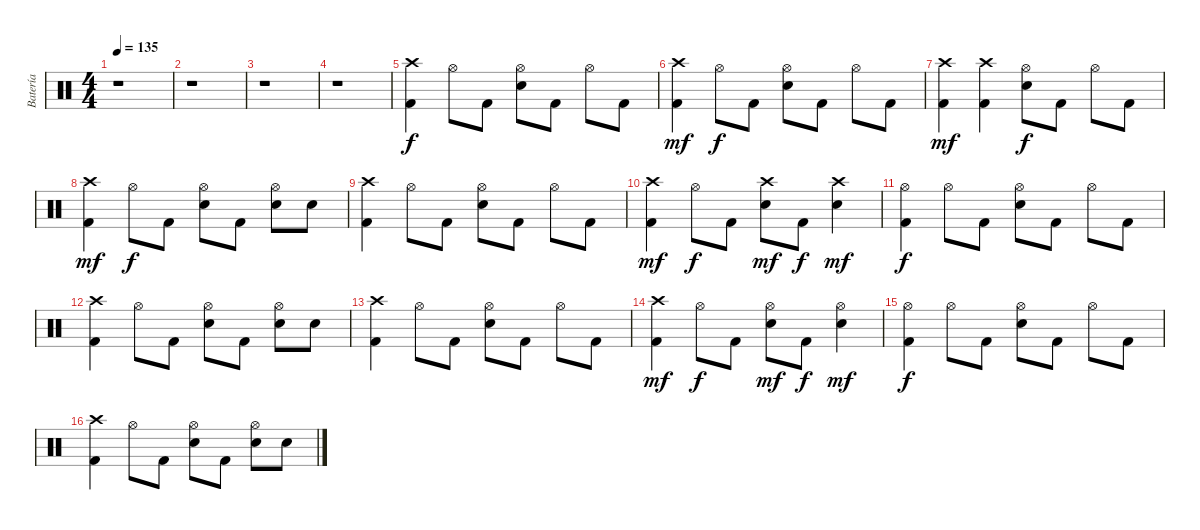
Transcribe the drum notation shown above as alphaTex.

\track ("Batería" "Batería") {instrument percussion}
\staff {score}
\articulation defaults
\ts (4 4)
\tempo 135
\clef neutral
\ks c
r.1{dy f} |
r.1 |
r.1 |
r.1 |
("Crash high (hit)" "Kick (hit) 2").4 "Hi-Hat (open)".8 "Kick (hit) 2".8 ("Hi-Hat (open)" "Snare (hit) 2").8 "Kick (hit) 2".8 "Hi-Hat (open)".8 "Kick (hit) 2".8 |
("Crash high (hit)" "Kick (hit) 2").4{dy mf} "Hi-Hat (open)".8{dy f} "Kick (hit) 2".8 ("Hi-Hat (open)" "Snare (hit) 2").8 "Kick (hit) 2".8 "Hi-Hat (open)".8 "Kick (hit) 2".8 |
("Crash high (hit)" "Kick (hit) 2").4{dy mf} ("Crash high (hit)" "Kick (hit) 2").4 ("Hi-Hat (open)" "Snare (hit) 2").8{dy f} "Kick (hit) 2".8 "Hi-Hat (open)".8 "Kick (hit) 2".8 |
("Crash high (hit)" "Kick (hit) 2").4{dy mf} "Hi-Hat (open)".8{dy f} "Kick (hit) 2".8 ("Hi-Hat (open)" "Snare (hit) 2").8 "Kick (hit) 2".8 ("Hi-Hat (open)" "Snare (hit) 2").8 "Snare (hit) 2".8 |
("Crash high (hit)" "Kick (hit) 2").4 "Hi-Hat (open)".8 "Kick (hit) 2".8 ("Hi-Hat (open)" "Snare (hit) 2").8 "Kick (hit) 2".8 "Hi-Hat (open)".8 "Kick (hit) 2".8 |
("Crash high (hit)" "Kick (hit) 2").4{dy mf} "Hi-Hat (open)".8{dy f} "Kick (hit) 2".8 ("Crash high (hit)" "Snare (hit) 2").8{dy mf} "Kick (hit) 2".8{dy f} ("Crash high (hit)" "Snare (hit) 2").4{dy mf} |
("Hi-Hat (open)" "Kick (hit) 2").4{dy f} "Hi-Hat (open)".8 "Kick (hit) 2".8 ("Hi-Hat (open)" "Snare (hit) 2").8 "Kick (hit) 2".8 "Hi-Hat (open)".8 "Kick (hit) 2".8 |
("Crash high (hit)" "Kick (hit) 2").4 "Hi-Hat (open)".8 "Kick (hit) 2".8 ("Hi-Hat (open)" "Snare (hit) 2").8 "Kick (hit) 2".8 ("Hi-Hat (open)" "Snare (hit) 2").8 "Snare (hit) 2".8 |
("Crash high (hit)" "Kick (hit) 2").4 "Hi-Hat (open)".8 "Kick (hit) 2".8 ("Hi-Hat (open)" "Snare (hit) 2").8 "Kick (hit) 2".8 "Hi-Hat (open)".8 "Kick (hit) 2".8 |
("Crash high (hit)" "Kick (hit) 2").4{dy mf} "Hi-Hat (open)".8{dy f} "Kick (hit) 2".8 ("Hi-Hat (open)" "Snare (hit) 2").8{dy mf} "Kick (hit) 2".8{dy f} ("Hi-Hat (open)" "Snare (hit) 2").4{dy mf} |
("Hi-Hat (open)" "Kick (hit) 2").4{dy f} "Hi-Hat (open)".8 "Kick (hit) 2".8 ("Hi-Hat (open)" "Snare (hit) 2").8 "Kick (hit) 2".8 "Hi-Hat (open)".8 "Kick (hit) 2".8 |
("Crash high (hit)" "Kick (hit) 2").4 "Hi-Hat (open)".8 "Kick (hit) 2".8 ("Hi-Hat (open)" "Snare (hit) 2").8 "Kick (hit) 2".8 ("Hi-Hat (open)" "Snare (hit) 2").8 "Snare (hit) 2".8
